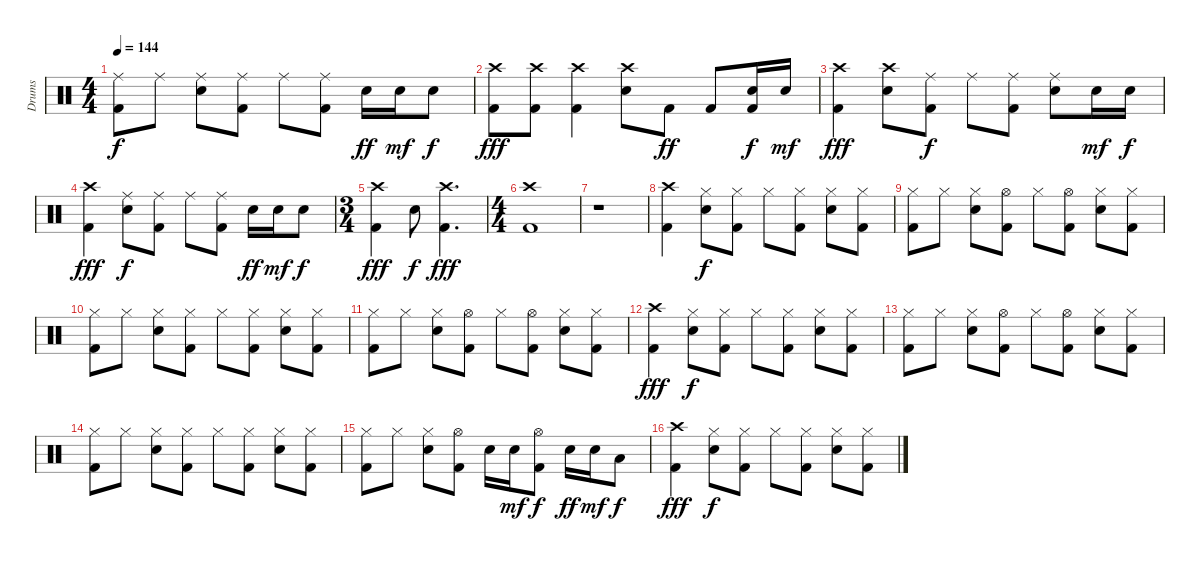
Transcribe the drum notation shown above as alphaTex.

\track ("Drums" "Drums") {instrument percussion}
\staff {score}
\articulation defaults
\ts (4 4)
\tempo 144
\clef neutral
\ks c
("Ride (middle)" "Kick (hit) 2").8{dy f} "Ride (middle)".8 ("Ride (middle)" "Snare (hit) 2").8 ("Ride (middle)" "Kick (hit) 2").8 "Ride (middle)".8 ("Ride (middle)" "Kick (hit) 2").8 "Snare (hit) 2".16{dy ff} "Snare (hit) 2".16{dy mf} "Snare (hit) 2".8{dy f} |
("Crash high (hit)" "Kick (hit) 2").8{dy fff} ("Crash high (hit)" "Kick (hit) 2").8 ("Crash high (hit)" "Kick (hit) 2").4 ("Crash high (hit)" "Snare (hit) 2").8 "Kick (hit) 2".8{dy ff} "Kick (hit) 2".8 ("Snare (hit) 2" "Kick (hit) 2").16{dy f} "Snare (hit) 2".16{dy mf} |
("Crash high (hit)" "Kick (hit) 2").4{dy fff} ("Crash high (hit)" "Snare (hit) 2").8 ("Ride (middle)" "Kick (hit) 2").8{dy f} "Ride (middle)".8 ("Ride (middle)" "Kick (hit) 2").8 ("Ride (middle)" "Snare (hit) 2").8 "Snare (hit) 2".16{dy mf} "Snare (hit) 2".16{dy f} |
("Crash high (hit)" "Kick (hit) 2").4{dy fff} ("Ride (middle)" "Snare (hit) 2").8{dy f} ("Ride (middle)" "Kick (hit) 2").8 "Ride (middle)".8 ("Ride (middle)" "Kick (hit) 2").8 "Snare (hit) 2".16{dy ff} "Snare (hit) 2".16{dy mf} "Snare (hit) 2".8{dy f} |
\ts (3 4)
("Crash high (hit)" "Kick (hit) 2").4{dy fff} "Snare (hit) 2".8{dy f} ("Crash high (hit)" "Kick (hit) 2").4{d dy fff} |
\ts (4 4)
("Crash high (hit)" "Kick (hit) 2").1 |
r.1 |
("Crash high (hit)" "Kick (hit) 2").4 ("Hi-Hat (closed)" "Snare (hit) 2").8{dy f} ("Hi-Hat (closed)" "Kick (hit) 2").8 "Hi-Hat (closed)".8 ("Hi-Hat (closed)" "Kick (hit) 2").8 ("Hi-Hat (closed)" "Snare (hit) 2").8 ("Hi-Hat (closed)" "Kick (hit) 2").8 |
("Hi-Hat (closed)" "Kick (hit) 2").8 "Hi-Hat (closed)".8 ("Hi-Hat (closed)" "Snare (hit) 2").8 ("Hi-Hat (open)" "Kick (hit) 2").8 "Hi-Hat (closed)".8 ("Hi-Hat (open)" "Kick (hit) 2").8 ("Hi-Hat (closed)" "Snare (hit) 2").8 ("Hi-Hat (closed)" "Kick (hit) 2").8 |
("Hi-Hat (closed)" "Kick (hit) 2").8 "Hi-Hat (closed)".8 ("Hi-Hat (closed)" "Snare (hit) 2").8 ("Hi-Hat (closed)" "Kick (hit) 2").8 "Hi-Hat (closed)".8 ("Hi-Hat (closed)" "Kick (hit) 2").8 ("Hi-Hat (closed)" "Snare (hit) 2").8 ("Hi-Hat (closed)" "Kick (hit) 2").8 |
("Hi-Hat (closed)" "Kick (hit) 2").8 "Hi-Hat (closed)".8 ("Hi-Hat (closed)" "Snare (hit) 2").8 ("Hi-Hat (open)" "Kick (hit) 2").8 "Hi-Hat (closed)".8 ("Hi-Hat (open)" "Kick (hit) 2").8 ("Hi-Hat (closed)" "Snare (hit) 2").8 ("Hi-Hat (closed)" "Kick (hit) 2").8 |
("Crash high (hit)" "Kick (hit) 2").4{dy fff} ("Hi-Hat (closed)" "Snare (hit) 2").8{dy f} ("Hi-Hat (closed)" "Kick (hit) 2").8 "Hi-Hat (closed)".8 ("Hi-Hat (closed)" "Kick (hit) 2").8 ("Hi-Hat (closed)" "Snare (hit) 2").8 ("Hi-Hat (closed)" "Kick (hit) 2").8 |
("Hi-Hat (closed)" "Kick (hit) 2").8 "Hi-Hat (closed)".8 ("Hi-Hat (closed)" "Snare (hit) 2").8 ("Hi-Hat (open)" "Kick (hit) 2").8 "Hi-Hat (closed)".8 ("Hi-Hat (open)" "Kick (hit) 2").8 ("Hi-Hat (closed)" "Snare (hit) 2").8 ("Hi-Hat (closed)" "Kick (hit) 2").8 |
("Hi-Hat (closed)" "Kick (hit) 2").8 "Hi-Hat (closed)".8 ("Hi-Hat (closed)" "Snare (hit) 2").8 ("Hi-Hat (closed)" "Kick (hit) 2").8 "Hi-Hat (closed)".8 ("Hi-Hat (closed)" "Kick (hit) 2").8 ("Hi-Hat (closed)" "Snare (hit) 2").8 ("Hi-Hat (closed)" "Kick (hit) 2").8 |
("Hi-Hat (closed)" "Kick (hit) 2").8 "Hi-Hat (closed)".8 ("Hi-Hat (closed)" "Snare (hit) 2").8 ("Hi-Hat (open)" "Kick (hit) 2").8 "Snare (hit) 2".16 "Snare (hit) 2".16{dy mf} ("Hi-Hat (open)" "Kick (hit) 2").8{dy f} "Snare (hit) 2".16{dy ff} "Snare (hit) 2".16{dy mf} "Low Tom (hit)".8{dy f} |
("Crash high (hit)" "Kick (hit) 2").4{dy fff} ("Hi-Hat (closed)" "Snare (hit) 2").8{dy f} ("Hi-Hat (closed)" "Kick (hit) 2").8 "Hi-Hat (closed)".8 ("Hi-Hat (closed)" "Kick (hit) 2").8 ("Hi-Hat (closed)" "Snare (hit) 2").8 ("Hi-Hat (closed)" "Kick (hit) 2").8
